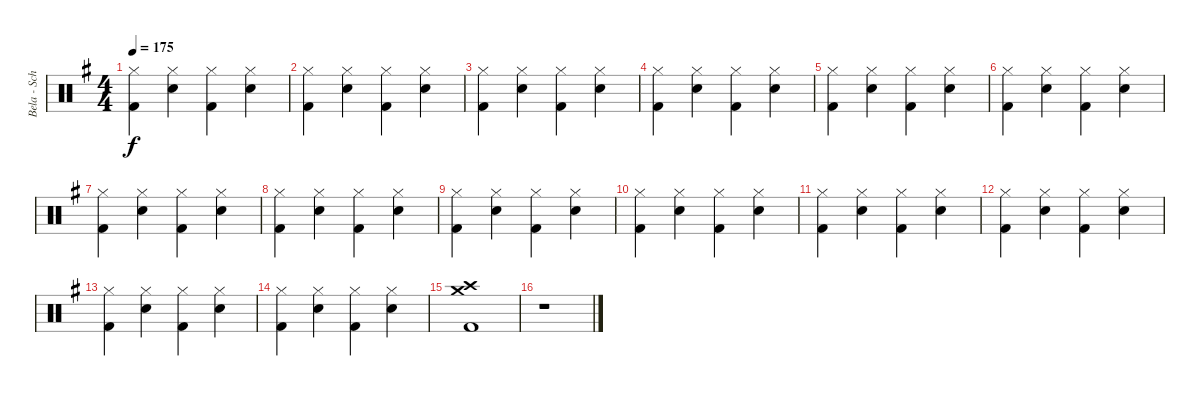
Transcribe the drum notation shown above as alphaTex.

\track ("Bela - Schlagzeug" "Bela - Sch") {instrument percussion}
\staff {score}
\articulation defaults
\ts (4 4)
\tempo 175
\clef neutral
\ks g
("Hi-Hat (closed)" "Kick (hit) 2").4{dy f} ("Hi-Hat (closed)" "Snare (hit) 2").4 ("Hi-Hat (closed)" "Kick (hit) 2").4 ("Hi-Hat (closed)" "Snare (hit) 2").4 |
("Hi-Hat (closed)" "Kick (hit) 2").4 ("Hi-Hat (closed)" "Snare (hit) 2").4 ("Hi-Hat (closed)" "Kick (hit) 2").4 ("Hi-Hat (closed)" "Snare (hit) 2").4 |
("Hi-Hat (closed)" "Kick (hit) 2").4 ("Hi-Hat (closed)" "Snare (hit) 2").4 ("Hi-Hat (closed)" "Kick (hit) 2").4 ("Hi-Hat (closed)" "Snare (hit) 2").4 |
("Hi-Hat (closed)" "Kick (hit) 2").4 ("Hi-Hat (closed)" "Snare (hit) 2").4 ("Hi-Hat (closed)" "Kick (hit) 2").4 ("Hi-Hat (closed)" "Snare (hit) 2").4 |
("Hi-Hat (closed)" "Kick (hit) 2").4 ("Hi-Hat (closed)" "Snare (hit) 2").4 ("Hi-Hat (closed)" "Kick (hit) 2").4 ("Hi-Hat (closed)" "Snare (hit) 2").4 |
("Hi-Hat (closed)" "Kick (hit) 2").4 ("Hi-Hat (closed)" "Snare (hit) 2").4 ("Hi-Hat (closed)" "Kick (hit) 2").4 ("Hi-Hat (closed)" "Snare (hit) 2").4 |
("Hi-Hat (closed)" "Kick (hit) 2").4 ("Hi-Hat (closed)" "Snare (hit) 2").4 ("Hi-Hat (closed)" "Kick (hit) 2").4 ("Hi-Hat (closed)" "Snare (hit) 2").4 |
("Hi-Hat (closed)" "Kick (hit) 2").4 ("Hi-Hat (closed)" "Snare (hit) 2").4 ("Hi-Hat (closed)" "Kick (hit) 2").4 ("Hi-Hat (closed)" "Snare (hit) 2").4 |
("Hi-Hat (closed)" "Kick (hit) 2").4 ("Hi-Hat (closed)" "Snare (hit) 2").4 ("Hi-Hat (closed)" "Kick (hit) 2").4 ("Hi-Hat (closed)" "Snare (hit) 2").4 |
("Hi-Hat (closed)" "Kick (hit) 2").4 ("Hi-Hat (closed)" "Snare (hit) 2").4 ("Hi-Hat (closed)" "Kick (hit) 2").4 ("Hi-Hat (closed)" "Snare (hit) 2").4 |
("Hi-Hat (closed)" "Kick (hit) 2").4 ("Hi-Hat (closed)" "Snare (hit) 2").4 ("Hi-Hat (closed)" "Kick (hit) 2").4 ("Hi-Hat (closed)" "Snare (hit) 2").4 |
("Hi-Hat (closed)" "Kick (hit) 2").4 ("Hi-Hat (closed)" "Snare (hit) 2").4 ("Hi-Hat (closed)" "Kick (hit) 2").4 ("Hi-Hat (closed)" "Snare (hit) 2").4 |
("Hi-Hat (closed)" "Kick (hit) 2").4 ("Hi-Hat (closed)" "Snare (hit) 2").4 ("Hi-Hat (closed)" "Kick (hit) 2").4 ("Hi-Hat (closed)" "Snare (hit) 2").4 |
("Hi-Hat (closed)" "Kick (hit) 2").4 ("Hi-Hat (closed)" "Snare (hit) 2").4 ("Hi-Hat (closed)" "Kick (hit) 2").4 ("Hi-Hat (closed)" "Snare (hit) 2").4 |
("Crash high (hit)" "Crash medium (hit)" "Kick (hit) 2").1 |
r.1
